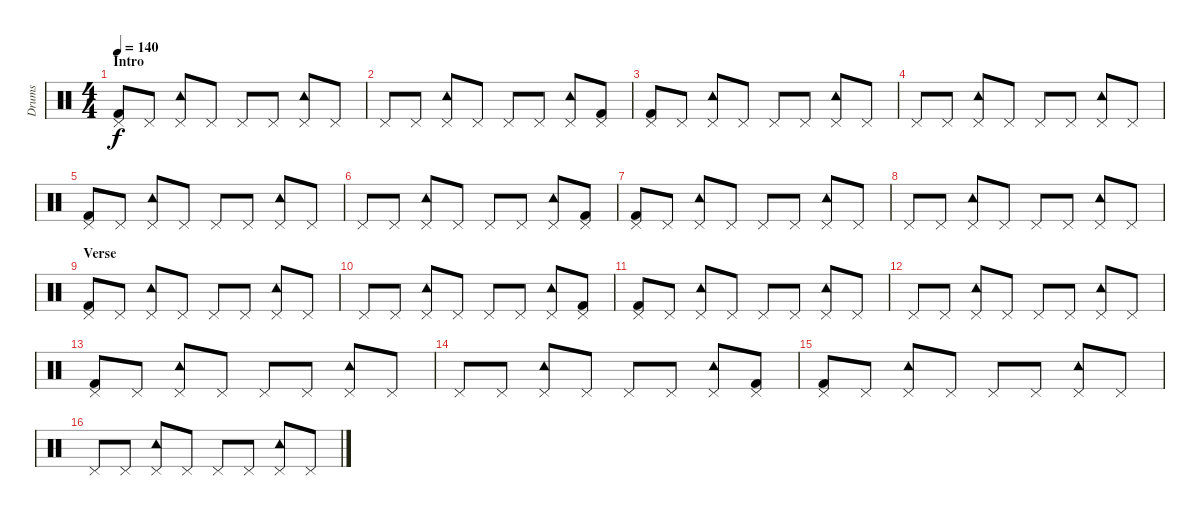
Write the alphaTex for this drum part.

\track ("Drums" "Drums") {instrument percussion}
\staff {score}
\articulation defaults
\ts (4 4)
\section ("" "Intro")
\tempo 140
\clef neutral
\ks c
("Pedal Hi-Hat (hit)" "Kick (hit) 2").8{dy f} "Pedal Hi-Hat (hit)".8 ("Pedal Hi-Hat (hit)" "Tambourine (hit)").8 "Pedal Hi-Hat (hit)".8 "Pedal Hi-Hat (hit)".8 "Pedal Hi-Hat (hit)".8 ("Pedal Hi-Hat (hit)" "Tambourine (hit)").8 "Pedal Hi-Hat (hit)".8 |
"Pedal Hi-Hat (hit)".8 "Pedal Hi-Hat (hit)".8 ("Pedal Hi-Hat (hit)" "Tambourine (hit)").8 "Pedal Hi-Hat (hit)".8 "Pedal Hi-Hat (hit)".8 "Pedal Hi-Hat (hit)".8 ("Pedal Hi-Hat (hit)" "Tambourine (hit)").8 ("Pedal Hi-Hat (hit)" "Kick (hit) 2").8 |
("Pedal Hi-Hat (hit)" "Kick (hit) 2").8 "Pedal Hi-Hat (hit)".8 ("Pedal Hi-Hat (hit)" "Tambourine (hit)").8 "Pedal Hi-Hat (hit)".8 "Pedal Hi-Hat (hit)".8 "Pedal Hi-Hat (hit)".8 ("Pedal Hi-Hat (hit)" "Tambourine (hit)").8 "Pedal Hi-Hat (hit)".8 |
"Pedal Hi-Hat (hit)".8 "Pedal Hi-Hat (hit)".8 ("Pedal Hi-Hat (hit)" "Tambourine (hit)").8 "Pedal Hi-Hat (hit)".8 "Pedal Hi-Hat (hit)".8 "Pedal Hi-Hat (hit)".8 ("Pedal Hi-Hat (hit)" "Tambourine (hit)").8 "Pedal Hi-Hat (hit)".8 |
("Pedal Hi-Hat (hit)" "Kick (hit) 2").8 "Pedal Hi-Hat (hit)".8 ("Pedal Hi-Hat (hit)" "Tambourine (hit)").8 "Pedal Hi-Hat (hit)".8 "Pedal Hi-Hat (hit)".8 "Pedal Hi-Hat (hit)".8 ("Pedal Hi-Hat (hit)" "Tambourine (hit)").8 "Pedal Hi-Hat (hit)".8 |
"Pedal Hi-Hat (hit)".8 "Pedal Hi-Hat (hit)".8 ("Pedal Hi-Hat (hit)" "Tambourine (hit)").8 "Pedal Hi-Hat (hit)".8 "Pedal Hi-Hat (hit)".8 "Pedal Hi-Hat (hit)".8 ("Pedal Hi-Hat (hit)" "Tambourine (hit)").8 ("Pedal Hi-Hat (hit)" "Kick (hit) 2").8 |
("Pedal Hi-Hat (hit)" "Kick (hit) 2").8 "Pedal Hi-Hat (hit)".8 ("Pedal Hi-Hat (hit)" "Tambourine (hit)").8 "Pedal Hi-Hat (hit)".8 "Pedal Hi-Hat (hit)".8 "Pedal Hi-Hat (hit)".8 ("Pedal Hi-Hat (hit)" "Tambourine (hit)").8 "Pedal Hi-Hat (hit)".8 |
"Pedal Hi-Hat (hit)".8 "Pedal Hi-Hat (hit)".8 ("Pedal Hi-Hat (hit)" "Tambourine (hit)").8 "Pedal Hi-Hat (hit)".8 "Pedal Hi-Hat (hit)".8 "Pedal Hi-Hat (hit)".8 ("Pedal Hi-Hat (hit)" "Tambourine (hit)").8 "Pedal Hi-Hat (hit)".8 |
\section ("" "Verse")
("Pedal Hi-Hat (hit)" "Kick (hit) 2").8 "Pedal Hi-Hat (hit)".8 ("Pedal Hi-Hat (hit)" "Tambourine (hit)").8 "Pedal Hi-Hat (hit)".8 "Pedal Hi-Hat (hit)".8 "Pedal Hi-Hat (hit)".8 ("Pedal Hi-Hat (hit)" "Tambourine (hit)").8 "Pedal Hi-Hat (hit)".8 |
"Pedal Hi-Hat (hit)".8 "Pedal Hi-Hat (hit)".8 ("Pedal Hi-Hat (hit)" "Tambourine (hit)").8 "Pedal Hi-Hat (hit)".8 "Pedal Hi-Hat (hit)".8 "Pedal Hi-Hat (hit)".8 ("Pedal Hi-Hat (hit)" "Tambourine (hit)").8 ("Pedal Hi-Hat (hit)" "Kick (hit) 2").8 |
("Pedal Hi-Hat (hit)" "Kick (hit) 2").8 "Pedal Hi-Hat (hit)".8 ("Pedal Hi-Hat (hit)" "Tambourine (hit)").8 "Pedal Hi-Hat (hit)".8 "Pedal Hi-Hat (hit)".8 "Pedal Hi-Hat (hit)".8 ("Pedal Hi-Hat (hit)" "Tambourine (hit)").8 "Pedal Hi-Hat (hit)".8 |
"Pedal Hi-Hat (hit)".8 "Pedal Hi-Hat (hit)".8 ("Pedal Hi-Hat (hit)" "Tambourine (hit)").8 "Pedal Hi-Hat (hit)".8 "Pedal Hi-Hat (hit)".8 "Pedal Hi-Hat (hit)".8 ("Pedal Hi-Hat (hit)" "Tambourine (hit)").8 "Pedal Hi-Hat (hit)".8 |
("Pedal Hi-Hat (hit)" "Kick (hit) 2").8 "Pedal Hi-Hat (hit)".8 ("Pedal Hi-Hat (hit)" "Tambourine (hit)").8 "Pedal Hi-Hat (hit)".8 "Pedal Hi-Hat (hit)".8 "Pedal Hi-Hat (hit)".8 ("Pedal Hi-Hat (hit)" "Tambourine (hit)").8 "Pedal Hi-Hat (hit)".8 |
"Pedal Hi-Hat (hit)".8 "Pedal Hi-Hat (hit)".8 ("Pedal Hi-Hat (hit)" "Tambourine (hit)").8 "Pedal Hi-Hat (hit)".8 "Pedal Hi-Hat (hit)".8 "Pedal Hi-Hat (hit)".8 ("Pedal Hi-Hat (hit)" "Tambourine (hit)").8 ("Pedal Hi-Hat (hit)" "Kick (hit) 2").8 |
("Pedal Hi-Hat (hit)" "Kick (hit) 2").8 "Pedal Hi-Hat (hit)".8 ("Pedal Hi-Hat (hit)" "Tambourine (hit)").8 "Pedal Hi-Hat (hit)".8 "Pedal Hi-Hat (hit)".8 "Pedal Hi-Hat (hit)".8 ("Pedal Hi-Hat (hit)" "Tambourine (hit)").8 "Pedal Hi-Hat (hit)".8 |
"Pedal Hi-Hat (hit)".8 "Pedal Hi-Hat (hit)".8 ("Pedal Hi-Hat (hit)" "Tambourine (hit)").8 "Pedal Hi-Hat (hit)".8 "Pedal Hi-Hat (hit)".8 "Pedal Hi-Hat (hit)".8 ("Pedal Hi-Hat (hit)" "Tambourine (hit)").8 "Pedal Hi-Hat (hit)".8
